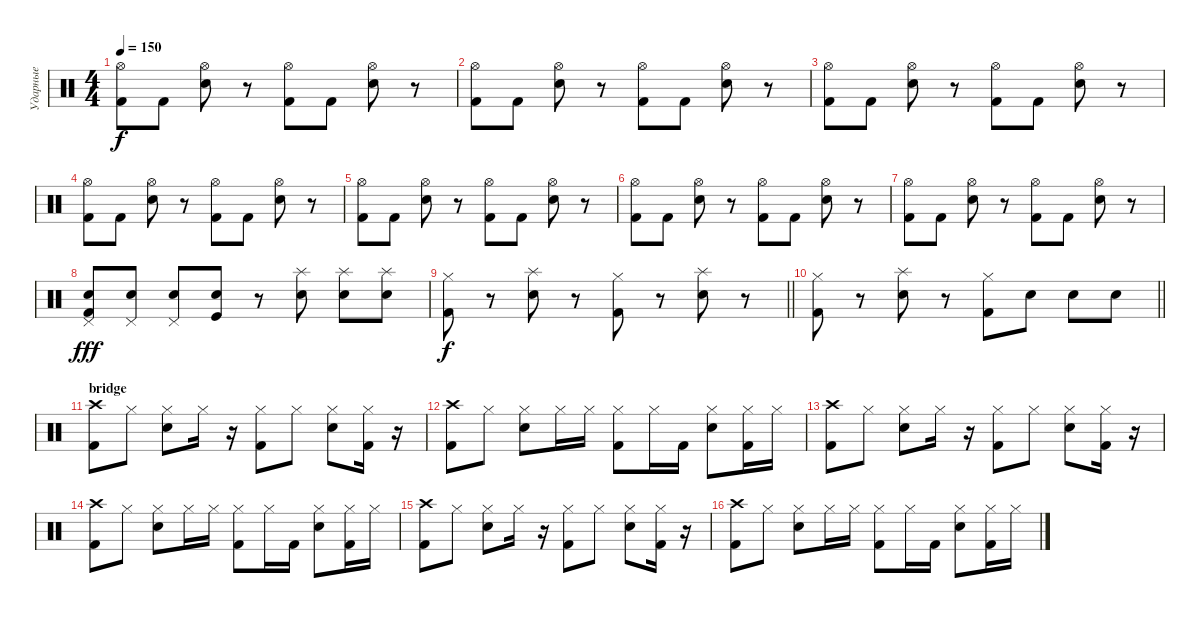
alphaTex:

\track ("Ударные" "Ударные") {instrument percussion}
\staff {score}
\articulation defaults
\ts (4 4)
\tempo 150
\clef neutral
\ks c
("Kick (hit) 2" "Hi-Hat (open)").8{dy f} "Kick (hit) 2".8 ("Snare (hit) 2" "Hi-Hat (open)").8 r.8 ("Kick (hit) 2" "Hi-Hat (open)").8 "Kick (hit) 2".8 ("Snare (hit) 2" "Hi-Hat (open)").8 r.8 |
("Kick (hit) 2" "Hi-Hat (open)").8 "Kick (hit) 2".8 ("Snare (hit) 2" "Hi-Hat (open)").8 r.8 ("Kick (hit) 2" "Hi-Hat (open)").8 "Kick (hit) 2".8 ("Snare (hit) 2" "Hi-Hat (open)").8 r.8 |
("Kick (hit) 2" "Hi-Hat (open)").8 "Kick (hit) 2".8 ("Snare (hit) 2" "Hi-Hat (open)").8 r.8 ("Kick (hit) 2" "Hi-Hat (open)").8 "Kick (hit) 2".8 ("Snare (hit) 2" "Hi-Hat (open)").8 r.8 |
("Kick (hit) 2" "Hi-Hat (open)").8 "Kick (hit) 2".8 ("Snare (hit) 2" "Hi-Hat (open)").8 r.8 ("Kick (hit) 2" "Hi-Hat (open)").8 "Kick (hit) 2".8 ("Snare (hit) 2" "Hi-Hat (open)").8 r.8 |
("Kick (hit) 2" "Hi-Hat (open)").8 "Kick (hit) 2".8 ("Snare (hit) 2" "Hi-Hat (open)").8 r.8 ("Kick (hit) 2" "Hi-Hat (open)").8 "Kick (hit) 2".8 ("Snare (hit) 2" "Hi-Hat (open)").8 r.8 |
("Kick (hit) 2" "Hi-Hat (open)").8 "Kick (hit) 2".8 ("Snare (hit) 2" "Hi-Hat (open)").8 r.8 ("Kick (hit) 2" "Hi-Hat (open)").8 "Kick (hit) 2".8 ("Snare (hit) 2" "Hi-Hat (open)").8 r.8 |
("Kick (hit) 2" "Hi-Hat (open)").8 "Kick (hit) 2".8 ("Snare (hit) 2" "Hi-Hat (open)").8 r.8 ("Kick (hit) 2" "Hi-Hat (open)").8 "Kick (hit) 2".8 ("Snare (hit) 2" "Hi-Hat (open)").8 r.8 |
("Pedal Hi-Hat (hit)" "Kick (hit) 2" "Snare (hit) 2").8{dy fff} ("Pedal Hi-Hat (hit)" "Snare (hit) 2").8 ("Pedal Hi-Hat (hit)" "Snare (hit) 2").8 ("Kick (hit)" "Snare (hit) 2").8 r.8 ("Splash (hit)" "Snare (hit) 2").8 ("Splash (hit)" "Snare (hit) 2").8 ("Splash (hit)" "Snare (hit) 2").8 |
\barLineRight lightlight
("Kick (hit) 2" "Hi-Hat (closed)").8{dy f} r.8 ("Electric Snare (hit)" "Splash (hit)").8 r.8 ("Kick (hit) 2" "Hi-Hat (closed)").8 r.8 ("Electric Snare (hit)" "Splash (hit)").8 r.8 |
\barLineRight lightlight
("Kick (hit) 2" "Hi-Hat (closed)").8 r.8 ("Electric Snare (hit)" "Splash (hit)").8 r.8 ("Kick (hit) 2" "Hi-Hat (closed)").8 "Snare (hit) 2".8 "Snare (hit) 2".8 "Snare (hit) 2".8 |
\section ("" "bridge")
("Crash high (hit)" "Kick (hit) 2").8 "Hi-Hat (closed)".8 ("Hi-Hat (closed)" "Electric Snare (hit)").8 "Hi-Hat (closed)".16 r.16 ("Hi-Hat (closed)" "Kick (hit) 2").8 "Hi-Hat (closed)".8 ("Hi-Hat (closed)" "Electric Snare (hit)").8 ("Hi-Hat (closed)" "Kick (hit) 2").16 r.16 |
("Crash high (hit)" "Kick (hit) 2").8 "Hi-Hat (closed)".8 ("Hi-Hat (closed)" "Electric Snare (hit)").8 "Hi-Hat (closed)".16 "Hi-Hat (closed)".16 ("Hi-Hat (closed)" "Kick (hit) 2").8 "Hi-Hat (closed)".16 "Kick (hit) 2".16 ("Hi-Hat (closed)" "Electric Snare (hit)").8 ("Hi-Hat (closed)" "Kick (hit) 2").16 "Hi-Hat (closed)".16 |
("Crash high (hit)" "Kick (hit) 2").8 "Hi-Hat (closed)".8 ("Hi-Hat (closed)" "Electric Snare (hit)").8 "Hi-Hat (closed)".16 r.16 ("Hi-Hat (closed)" "Kick (hit) 2").8 "Hi-Hat (closed)".8 ("Hi-Hat (closed)" "Electric Snare (hit)").8 ("Hi-Hat (closed)" "Kick (hit) 2").16 r.16 |
("Crash high (hit)" "Kick (hit) 2").8 "Hi-Hat (closed)".8 ("Hi-Hat (closed)" "Electric Snare (hit)").8 "Hi-Hat (closed)".16 "Hi-Hat (closed)".16 ("Hi-Hat (closed)" "Kick (hit) 2").8 "Hi-Hat (closed)".16 "Kick (hit) 2".16 ("Hi-Hat (closed)" "Electric Snare (hit)").8 ("Hi-Hat (closed)" "Kick (hit) 2").16 "Hi-Hat (closed)".16 |
("Crash high (hit)" "Kick (hit) 2").8 "Hi-Hat (closed)".8 ("Hi-Hat (closed)" "Electric Snare (hit)").8 "Hi-Hat (closed)".16 r.16 ("Hi-Hat (closed)" "Kick (hit) 2").8 "Hi-Hat (closed)".8 ("Hi-Hat (closed)" "Electric Snare (hit)").8 ("Hi-Hat (closed)" "Kick (hit) 2").16 r.16 |
("Crash high (hit)" "Kick (hit) 2").8 "Hi-Hat (closed)".8 ("Hi-Hat (closed)" "Electric Snare (hit)").8 "Hi-Hat (closed)".16 "Hi-Hat (closed)".16 ("Hi-Hat (closed)" "Kick (hit) 2").8 "Hi-Hat (closed)".16 "Kick (hit) 2".16 ("Hi-Hat (closed)" "Electric Snare (hit)").8 ("Hi-Hat (closed)" "Kick (hit) 2").16 "Hi-Hat (closed)".16
